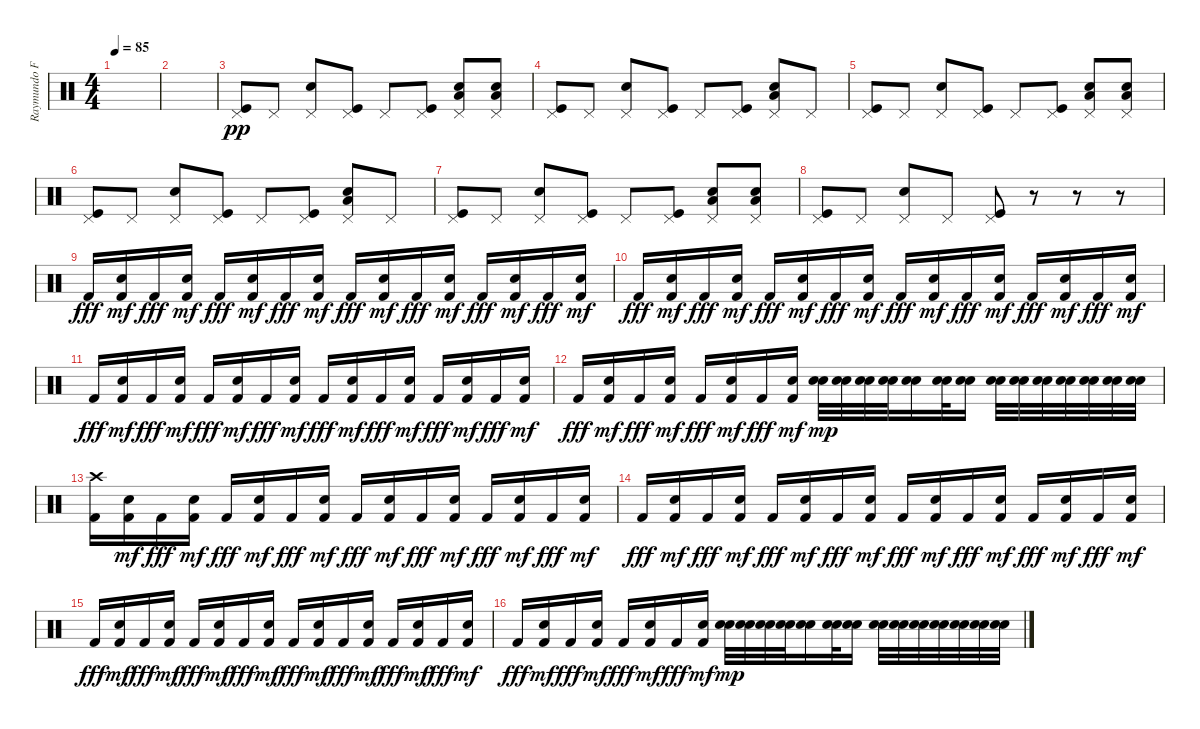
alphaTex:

\track ("Raymundo Fajardo (Bateria)" "Raymundo F") {instrument percussion}
\staff {score}
\articulation defaults
\ts (4 4)
\tempo 85
\clef neutral
\ks c
|
|
("Kick (hit)" "Pedal Hi-Hat (hit)").8{dy pp} "Pedal Hi-Hat (hit)".8 ("Electric Snare (hit)" "Pedal Hi-Hat (hit)").8 ("Kick (hit)" "Pedal Hi-Hat (hit)").8 "Pedal Hi-Hat (hit)".8 ("Kick (hit)" "Pedal Hi-Hat (hit)").8 ("Electric Snare (hit)" "Low Tom (hit)" "Pedal Hi-Hat (hit)").8 ("Electric Snare (hit)" "Low Tom (hit)" "Pedal Hi-Hat (hit)").8 |
("Kick (hit)" "Pedal Hi-Hat (hit)").8 "Pedal Hi-Hat (hit)".8 ("Electric Snare (hit)" "Pedal Hi-Hat (hit)").8 ("Kick (hit)" "Pedal Hi-Hat (hit)").8 "Pedal Hi-Hat (hit)".8 ("Kick (hit)" "Pedal Hi-Hat (hit)").8 ("Electric Snare (hit)" "Low Tom (hit)" "Pedal Hi-Hat (hit)").8 "Pedal Hi-Hat (hit)".8 |
("Kick (hit)" "Pedal Hi-Hat (hit)").8 "Pedal Hi-Hat (hit)".8 ("Electric Snare (hit)" "Pedal Hi-Hat (hit)").8 ("Kick (hit)" "Pedal Hi-Hat (hit)").8 "Pedal Hi-Hat (hit)".8 ("Kick (hit)" "Pedal Hi-Hat (hit)").8 ("Electric Snare (hit)" "Low Tom (hit)" "Pedal Hi-Hat (hit)").8 ("Electric Snare (hit)" "Low Tom (hit)" "Pedal Hi-Hat (hit)").8 |
("Kick (hit)" "Pedal Hi-Hat (hit)").8 "Pedal Hi-Hat (hit)".8 ("Electric Snare (hit)" "Pedal Hi-Hat (hit)").8 ("Kick (hit)" "Pedal Hi-Hat (hit)").8 "Pedal Hi-Hat (hit)".8 ("Kick (hit)" "Pedal Hi-Hat (hit)").8 ("Electric Snare (hit)" "Low Tom (hit)" "Pedal Hi-Hat (hit)").8 "Pedal Hi-Hat (hit)".8 |
("Kick (hit)" "Pedal Hi-Hat (hit)").8 "Pedal Hi-Hat (hit)".8 ("Electric Snare (hit)" "Pedal Hi-Hat (hit)").8 ("Kick (hit)" "Pedal Hi-Hat (hit)").8 "Pedal Hi-Hat (hit)".8 ("Kick (hit)" "Pedal Hi-Hat (hit)").8 ("Electric Snare (hit)" "Low Tom (hit)" "Pedal Hi-Hat (hit)").8 ("Electric Snare (hit)" "Low Tom (hit)" "Pedal Hi-Hat (hit)").8 |
("Kick (hit)" "Pedal Hi-Hat (hit)").8 "Pedal Hi-Hat (hit)".8 ("Electric Snare (hit)" "Pedal Hi-Hat (hit)").8 "Pedal Hi-Hat (hit)".8 ("Kick (hit)" "Pedal Hi-Hat (hit)").8 r.8 r.8 r.8 |
"Kick (hit) 2".16{dy fff} ("Kick (hit) 2" "Electric Snare (hit)").16{dy mf} "Kick (hit) 2".16{dy fff} ("Kick (hit) 2" "Electric Snare (hit)").16{dy mf} "Kick (hit) 2".16{dy fff} ("Kick (hit) 2" "Electric Snare (hit)").16{dy mf} "Kick (hit) 2".16{dy fff} ("Kick (hit) 2" "Electric Snare (hit)").16{dy mf} "Kick (hit) 2".16{dy fff} ("Kick (hit) 2" "Electric Snare (hit)").16{dy mf} "Kick (hit) 2".16{dy fff} ("Kick (hit) 2" "Electric Snare (hit)").16{dy mf} "Kick (hit) 2".16{dy fff} ("Kick (hit) 2" "Electric Snare (hit)").16{dy mf} "Kick (hit) 2".16{dy fff} ("Kick (hit) 2" "Electric Snare (hit)").16{dy mf} |
"Kick (hit) 2".16{dy fff} ("Kick (hit) 2" "Electric Snare (hit)").16{dy mf} "Kick (hit) 2".16{dy fff} ("Kick (hit) 2" "Electric Snare (hit)").16{dy mf} "Kick (hit) 2".16{dy fff} ("Kick (hit) 2" "Electric Snare (hit)").16{dy mf} "Kick (hit) 2".16{dy fff} ("Kick (hit) 2" "Electric Snare (hit)").16{dy mf} "Kick (hit) 2".16{dy fff} ("Kick (hit) 2" "Electric Snare (hit)").16{dy mf} "Kick (hit) 2".16{dy fff} ("Kick (hit) 2" "Electric Snare (hit)").16{dy mf} "Kick (hit) 2".16{dy fff} ("Kick (hit) 2" "Electric Snare (hit)").16{dy mf} "Kick (hit) 2".16{dy fff} ("Kick (hit) 2" "Electric Snare (hit)").16{dy mf} |
"Kick (hit) 2".16{dy fff} ("Kick (hit) 2" "Electric Snare (hit)").16{dy mf} "Kick (hit) 2".16{dy fff} ("Kick (hit) 2" "Electric Snare (hit)").16{dy mf} "Kick (hit) 2".16{dy fff} ("Kick (hit) 2" "Electric Snare (hit)").16{dy mf} "Kick (hit) 2".16{dy fff} ("Kick (hit) 2" "Electric Snare (hit)").16{dy mf} "Kick (hit) 2".16{dy fff} ("Kick (hit) 2" "Electric Snare (hit)").16{dy mf} "Kick (hit) 2".16{dy fff} ("Kick (hit) 2" "Electric Snare (hit)").16{dy mf} "Kick (hit) 2".16{dy fff} ("Kick (hit) 2" "Electric Snare (hit)").16{dy mf} "Kick (hit) 2".16{dy fff} ("Kick (hit) 2" "Electric Snare (hit)").16{dy mf} |
"Kick (hit) 2".16{dy fff} ("Kick (hit) 2" "Electric Snare (hit)").16{dy mf} "Kick (hit) 2".16{dy fff} ("Kick (hit) 2" "Electric Snare (hit)").16{dy mf} "Kick (hit) 2".16{dy fff} ("Kick (hit) 2" "Electric Snare (hit)").16{dy mf} "Kick (hit) 2".16{dy fff} ("Kick (hit) 2" "Electric Snare (hit)").16{dy mf} ("Snare (hit) 2" "Electric Snare (hit)").32{dy mp} ("Snare (hit) 2" "Electric Snare (hit)").32 ("Snare (hit) 2" "Electric Snare (hit)").32 ("Snare (hit) 2" "Electric Snare (hit)").32 ("Snare (hit) 2" "Electric Snare (hit)").16 ("Snare (hit) 2" "Electric Snare (hit)").32 ("Snare (hit) 2" "Electric Snare (hit)").16 ("Snare (hit) 2" "Electric Snare (hit)").32 ("Snare (hit) 2" "Electric Snare (hit)").32 ("Snare (hit) 2" "Electric Snare (hit)").32 ("Snare (hit) 2" "Electric Snare (hit)").32 ("Snare (hit) 2" "Electric Snare (hit)").32 ("Snare (hit) 2" "Electric Snare (hit)").32 ("Snare (hit) 2" "Electric Snare (hit)").32 |
("Kick (hit) 2" "Crash high (hit)").16 ("Kick (hit) 2" "Electric Snare (hit)").16{dy mf} "Kick (hit) 2".16{dy fff} ("Kick (hit) 2" "Electric Snare (hit)").16{dy mf} "Kick (hit) 2".16{dy fff} ("Kick (hit) 2" "Electric Snare (hit)").16{dy mf} "Kick (hit) 2".16{dy fff} ("Kick (hit) 2" "Electric Snare (hit)").16{dy mf} "Kick (hit) 2".16{dy fff} ("Kick (hit) 2" "Electric Snare (hit)").16{dy mf} "Kick (hit) 2".16{dy fff} ("Kick (hit) 2" "Electric Snare (hit)").16{dy mf} "Kick (hit) 2".16{dy fff} ("Kick (hit) 2" "Electric Snare (hit)").16{dy mf} "Kick (hit) 2".16{dy fff} ("Kick (hit) 2" "Electric Snare (hit)").16{dy mf} |
"Kick (hit) 2".16{dy fff} ("Kick (hit) 2" "Electric Snare (hit)").16{dy mf} "Kick (hit) 2".16{dy fff} ("Kick (hit) 2" "Electric Snare (hit)").16{dy mf} "Kick (hit) 2".16{dy fff} ("Kick (hit) 2" "Electric Snare (hit)").16{dy mf} "Kick (hit) 2".16{dy fff} ("Kick (hit) 2" "Electric Snare (hit)").16{dy mf} "Kick (hit) 2".16{dy fff} ("Kick (hit) 2" "Electric Snare (hit)").16{dy mf} "Kick (hit) 2".16{dy fff} ("Kick (hit) 2" "Electric Snare (hit)").16{dy mf} "Kick (hit) 2".16{dy fff} ("Kick (hit) 2" "Electric Snare (hit)").16{dy mf} "Kick (hit) 2".16{dy fff} ("Kick (hit) 2" "Electric Snare (hit)").16{dy mf} |
"Kick (hit) 2".16{dy fff} ("Kick (hit) 2" "Electric Snare (hit)").16{dy mf} "Kick (hit) 2".16{dy fff} ("Kick (hit) 2" "Electric Snare (hit)").16{dy mf} "Kick (hit) 2".16{dy fff} ("Kick (hit) 2" "Electric Snare (hit)").16{dy mf} "Kick (hit) 2".16{dy fff} ("Kick (hit) 2" "Electric Snare (hit)").16{dy mf} "Kick (hit) 2".16{dy fff} ("Kick (hit) 2" "Electric Snare (hit)").16{dy mf} "Kick (hit) 2".16{dy fff} ("Kick (hit) 2" "Electric Snare (hit)").16{dy mf} "Kick (hit) 2".16{dy fff} ("Kick (hit) 2" "Electric Snare (hit)").16{dy mf} "Kick (hit) 2".16{dy fff} ("Kick (hit) 2" "Electric Snare (hit)").16{dy mf} |
"Kick (hit) 2".16{dy fff} ("Kick (hit) 2" "Electric Snare (hit)").16{dy mf} "Kick (hit) 2".16{dy fff} ("Kick (hit) 2" "Electric Snare (hit)").16{dy mf} "Kick (hit) 2".16{dy fff} ("Kick (hit) 2" "Electric Snare (hit)").16{dy mf} "Kick (hit) 2".16{dy fff} ("Kick (hit) 2" "Electric Snare (hit)").16{dy mf} ("Snare (hit) 2" "Electric Snare (hit)").32{dy mp} ("Snare (hit) 2" "Electric Snare (hit)").32 ("Snare (hit) 2" "Electric Snare (hit)").32 ("Snare (hit) 2" "Electric Snare (hit)").32 ("Snare (hit) 2" "Electric Snare (hit)").16 ("Snare (hit) 2" "Electric Snare (hit)").32 ("Snare (hit) 2" "Electric Snare (hit)").16 ("Snare (hit) 2" "Electric Snare (hit)").32 ("Snare (hit) 2" "Electric Snare (hit)").32 ("Snare (hit) 2" "Electric Snare (hit)").32 ("Snare (hit) 2" "Electric Snare (hit)").32 ("Snare (hit) 2" "Electric Snare (hit)").32 ("Snare (hit) 2" "Electric Snare (hit)").32 ("Snare (hit) 2" "Electric Snare (hit)").32
